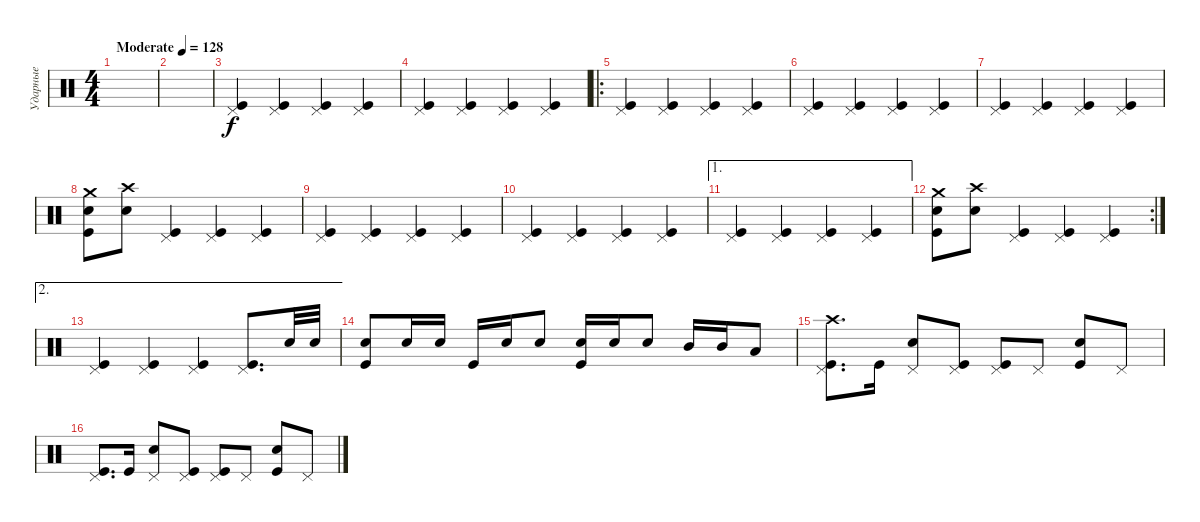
\track ("Ударные" "Ударные") {instrument percussion}
\staff {score}
\articulation defaults
\ts (4 4)
\tempo (128 "Moderate")
\clef neutral
\ks c
|
|
("Kick (hit)" "Pedal Hi-Hat (hit)").4 ("Kick (hit)" "Pedal Hi-Hat (hit)").4 ("Kick (hit)" "Pedal Hi-Hat (hit)").4 ("Kick (hit)" "Pedal Hi-Hat (hit)").4 |
("Kick (hit)" "Pedal Hi-Hat (hit)").4 ("Kick (hit)" "Pedal Hi-Hat (hit)").4 ("Kick (hit)" "Pedal Hi-Hat (hit)").4 ("Kick (hit)" "Pedal Hi-Hat (hit)").4 |
\ro
("Kick (hit)" "Pedal Hi-Hat (hit)").4 ("Kick (hit)" "Pedal Hi-Hat (hit)").4 ("Kick (hit)" "Pedal Hi-Hat (hit)").4 ("Kick (hit)" "Pedal Hi-Hat (hit)").4 |
("Kick (hit)" "Pedal Hi-Hat (hit)").4 ("Kick (hit)" "Pedal Hi-Hat (hit)").4 ("Kick (hit)" "Pedal Hi-Hat (hit)").4 ("Kick (hit)" "Pedal Hi-Hat (hit)").4 |
("Kick (hit)" "Pedal Hi-Hat (hit)").4 ("Kick (hit)" "Pedal Hi-Hat (hit)").4 ("Kick (hit)" "Pedal Hi-Hat (hit)").4 ("Kick (hit)" "Pedal Hi-Hat (hit)").4 |
("Kick (hit)" "Snare (hit) 2" "Crash medium (hit)").8 ("Snare (hit) 2" "Crash high (hit)").8 ("Kick (hit)" "Pedal Hi-Hat (hit)").4 ("Kick (hit)" "Pedal Hi-Hat (hit)").4 ("Kick (hit)" "Pedal Hi-Hat (hit)").4 |
("Kick (hit)" "Pedal Hi-Hat (hit)").4 ("Kick (hit)" "Pedal Hi-Hat (hit)").4 ("Kick (hit)" "Pedal Hi-Hat (hit)").4 ("Kick (hit)" "Pedal Hi-Hat (hit)").4 |
("Kick (hit)" "Pedal Hi-Hat (hit)").4 ("Kick (hit)" "Pedal Hi-Hat (hit)").4 ("Kick (hit)" "Pedal Hi-Hat (hit)").4 ("Kick (hit)" "Pedal Hi-Hat (hit)").4 |
\ae 1
("Kick (hit)" "Pedal Hi-Hat (hit)").4 ("Kick (hit)" "Pedal Hi-Hat (hit)").4 ("Kick (hit)" "Pedal Hi-Hat (hit)").4 ("Kick (hit)" "Pedal Hi-Hat (hit)").4 |
\rc 2
("Kick (hit)" "Snare (hit) 2" "Crash medium (hit)").8 ("Snare (hit) 2" "Crash high (hit)").8 ("Kick (hit)" "Pedal Hi-Hat (hit)").4 ("Kick (hit)" "Pedal Hi-Hat (hit)").4 ("Kick (hit)" "Pedal Hi-Hat (hit)").4 |
\ae 2
("Kick (hit)" "Pedal Hi-Hat (hit)").4 ("Kick (hit)" "Pedal Hi-Hat (hit)").4 ("Kick (hit)" "Pedal Hi-Hat (hit)").4 ("Kick (hit)" "Pedal Hi-Hat (hit)").8{d} "Snare (hit) 2".32 "Snare (hit) 2".32 |
("Kick (hit)" "Snare (hit) 2").8 "Snare (hit) 2".16 "Snare (hit) 2".16 "Kick (hit)".16 "Snare (hit) 2".16 "Snare (hit) 2".8 ("Kick (hit)" "Snare (hit) 2").16 "Snare (hit) 2".16 "Snare (hit) 2".8 "Mid Tom (hit)".16 "Mid Tom (hit)".16 "Low Tom (hit)".8 |
("Kick (hit)" "Pedal Hi-Hat (hit)" "Crash high (hit)").8{d} "Kick (hit)".16 ("Pedal Hi-Hat (hit)" "Snare (hit) 2").8 ("Kick (hit)" "Pedal Hi-Hat (hit)").8 ("Kick (hit)" "Pedal Hi-Hat (hit)").8 "Pedal Hi-Hat (hit)".8 ("Kick (hit)" "Snare (hit) 2").8 "Pedal Hi-Hat (hit)".8 |
("Kick (hit)" "Pedal Hi-Hat (hit)").8{d} "Kick (hit)".16 ("Pedal Hi-Hat (hit)" "Snare (hit) 2").8 ("Kick (hit)" "Pedal Hi-Hat (hit)").8 ("Kick (hit)" "Pedal Hi-Hat (hit)").8 "Pedal Hi-Hat (hit)".8 ("Kick (hit)" "Snare (hit) 2").8 "Pedal Hi-Hat (hit)".8
